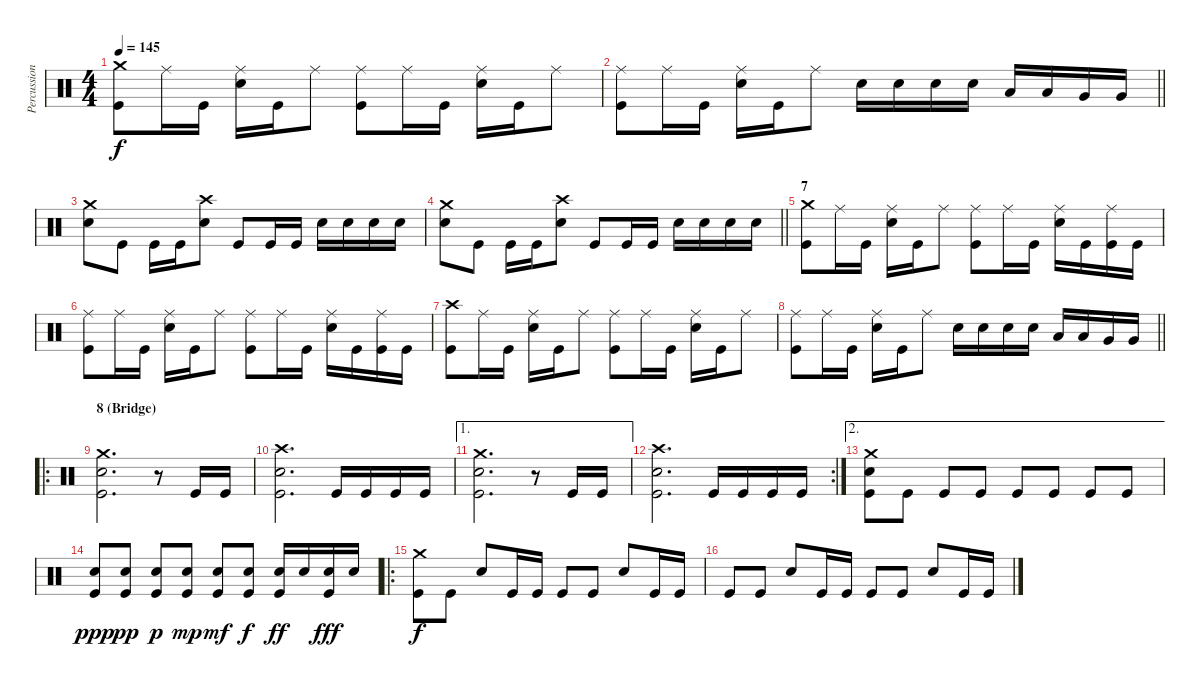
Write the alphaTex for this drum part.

\track ("Percussion" "Percussion") {instrument percussion}
\staff {score}
\articulation defaults
\ts (4 4)
\tempo 145
\clef neutral
\ks c
("Crash medium (hit)" "Kick (hit)").8{dy f} "Ride (middle)".16 "Kick (hit)".16 ("Ride (middle)" "Snare (hit) 2").16 "Kick (hit)".16 "Ride (middle)".8 ("Ride (middle)" "Kick (hit)").8 "Ride (middle)".16 "Kick (hit)".16 ("Ride (middle)" "Snare (hit) 2").16 "Kick (hit)".16 "Ride (middle)".8 |
\barLineRight lightlight
("Ride (middle)" "Kick (hit)").8 "Ride (middle)".16 "Kick (hit)".16 ("Ride (middle)" "Snare (hit) 2").16 "Kick (hit)".16 "Ride (middle)".8 "Snare (hit) 2".16 "Snare (hit) 2".16 "Snare (hit) 2".16 "Snare (hit) 2".16 "Low Tom (hit)".16 "Low Tom (hit)".16 "Very Low Tom (hit)".16 "Very Low Tom (hit)".16 |
("Crash medium (hit)" "Snare (hit) 2").8 "Kick (hit)".8 "Kick (hit)".16 "Kick (hit)".16 ("Crash high (hit)" "Snare (hit) 2").8 "Kick (hit)".8 "Kick (hit)".16 "Kick (hit)".16 "Snare (hit) 2".16 "Snare (hit) 2".16 "Snare (hit) 2".16 "Snare (hit) 2".16 |
\barLineRight lightlight
("Crash medium (hit)" "Snare (hit) 2").8 "Kick (hit)".8 "Kick (hit)".16 "Kick (hit)".16 ("Crash high (hit)" "Snare (hit) 2").8 "Kick (hit)".8 "Kick (hit)".16 "Kick (hit)".16 "Snare (hit) 2".16 "Snare (hit) 2".16 "Snare (hit) 2".16 "Snare (hit) 2".16 |
\section ("" "7")
("Crash medium (hit)" "Kick (hit)").8 "Ride (middle)".16 "Kick (hit)".16 ("Ride (middle)" "Snare (hit) 2").16 "Kick (hit)".16 "Ride (middle)".8 ("Ride (middle)" "Kick (hit)").8 "Ride (middle)".16 "Kick (hit)".16 ("Ride (middle)" "Snare (hit) 2").16 "Kick (hit)".16 ("Ride (middle)" "Kick (hit)").16 "Kick (hit)".16 |
("Ride (middle)" "Kick (hit)").8 "Ride (middle)".16 "Kick (hit)".16 ("Ride (middle)" "Snare (hit) 2").16 "Kick (hit)".16 "Ride (middle)".8 ("Ride (middle)" "Kick (hit)").8 "Ride (middle)".16 "Kick (hit)".16 ("Ride (middle)" "Snare (hit) 2").16 "Kick (hit)".16 ("Ride (middle)" "Kick (hit)").16 "Kick (hit)".16 |
("Crash high (hit)" "Kick (hit)").8 "Ride (middle)".16 "Kick (hit)".16 ("Ride (middle)" "Snare (hit) 2").16 "Kick (hit)".16 "Ride (middle)".8 ("Ride (middle)" "Kick (hit)").8 "Ride (middle)".16 "Kick (hit)".16 ("Ride (middle)" "Snare (hit) 2").16 "Kick (hit)".16 "Ride (middle)".8 |
\barLineRight lightlight
("Ride (middle)" "Kick (hit)").8 "Ride (middle)".16 "Kick (hit)".16 ("Ride (middle)" "Snare (hit) 2").16 "Kick (hit)".16 "Ride (middle)".8 "Snare (hit) 2".16 "Snare (hit) 2".16 "Snare (hit) 2".16 "Snare (hit) 2".16 "Low Tom (hit)".16 "Low Tom (hit)".16 "Very Low Tom (hit)".16 "Very Low Tom (hit)".16 |
\ro
\section ("" "8 (Bridge)")
("Crash medium (hit)" "Snare (hit) 2" "Kick (hit)").2{d volume 0} r.8 "Kick (hit)".16{volume 13} "Kick (hit)".16 |
("Crash high (hit)" "Snare (hit) 2" "Kick (hit)").2{d volume 0} "Kick (hit)".16{volume 13} "Kick (hit)".16 "Kick (hit)".16 "Kick (hit)".16 |
\ae 1
("Crash medium (hit)" "Snare (hit) 2" "Kick (hit)").2{d volume 0} r.8 "Kick (hit)".16{volume 13} "Kick (hit)".16 |
\rc 2
("Crash high (hit)" "Snare (hit) 2" "Kick (hit)").2{d volume 0} "Kick (hit)".16{volume 13} "Kick (hit)".16 "Kick (hit)".16 "Kick (hit)".16 |
\ae 2
("Crash medium (hit)" "Snare (hit) 2" "Kick (hit)").8 "Kick (hit)".8 "Kick (hit)".8 "Kick (hit)".8 "Kick (hit)".8 "Kick (hit)".8 "Kick (hit)".8 "Kick (hit)".8 |
("Snare (hit) 2" "Kick (hit)").8{dy ppp} ("Snare (hit) 2" "Kick (hit)").8{dy pp} ("Snare (hit) 2" "Kick (hit)").8{dy p} ("Snare (hit) 2" "Kick (hit)").8{dy mp} ("Snare (hit) 2" "Kick (hit)").8{dy mf} ("Snare (hit) 2" "Kick (hit)").8{dy f} ("Snare (hit) 2" "Kick (hit)").16{dy ff} "Snare (hit) 2".16 ("Snare (hit) 2" "Kick (hit)").16{dy fff} "Snare (hit) 2".16 |
\ro
("Crash medium (hit)" "Kick (hit)").8{dy f} "Kick (hit)".8 "Snare (hit) 2".8 "Kick (hit)".16 "Kick (hit)".16 "Kick (hit)".8 "Kick (hit)".8 "Snare (hit) 2".8 "Kick (hit)".16 "Kick (hit)".16 |
"Kick (hit)".8 "Kick (hit)".8 "Snare (hit) 2".8 "Kick (hit)".16 "Kick (hit)".16 "Kick (hit)".8 "Kick (hit)".8 "Snare (hit) 2".8 "Kick (hit)".16 "Kick (hit)".16
